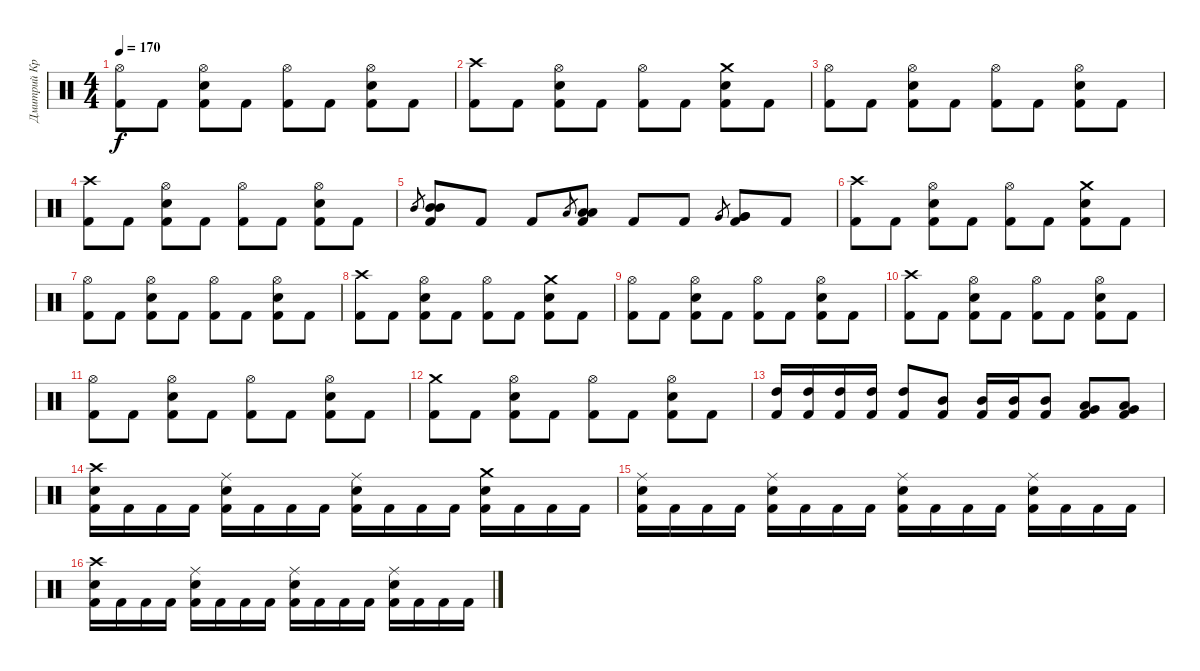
\track ("Дмитрий Кривенков" "Дмитрий Кр") {instrument percussion}
\staff {score}
\articulation defaults
\ts (4 4)
\tempo 170
\clef neutral
\ks c
("Hi-Hat (open)" "Kick (hit) 2").8{dy f} "Kick (hit) 2".8 ("Hi-Hat (open)" "Electric Snare (hit)" "Kick (hit) 2").8 "Kick (hit) 2".8 ("Hi-Hat (open)" "Kick (hit) 2").8 "Kick (hit) 2".8 ("Hi-Hat (open)" "Electric Snare (hit)" "Kick (hit) 2").8 "Kick (hit) 2".8 |
("Crash high (hit)" "Kick (hit) 2").8 "Kick (hit) 2".8 ("Hi-Hat (open)" "Electric Snare (hit)" "Kick (hit) 2").8 "Kick (hit) 2".8 ("Hi-Hat (open)" "Kick (hit) 2").8 "Kick (hit) 2".8 ("Crash medium (hit)" "Electric Snare (hit)" "Kick (hit) 2").8 "Kick (hit) 2".8 |
("Hi-Hat (open)" "Kick (hit) 2").8 "Kick (hit) 2".8 ("Hi-Hat (open)" "Electric Snare (hit)" "Kick (hit) 2").8 "Kick (hit) 2".8 ("Hi-Hat (open)" "Kick (hit) 2").8 "Kick (hit) 2".8 ("Hi-Hat (open)" "Electric Snare (hit)" "Kick (hit) 2").8 "Kick (hit) 2".8 |
("Crash high (hit)" "Kick (hit) 2").8 "Kick (hit) 2".8 ("Hi-Hat (open)" "Electric Snare (hit)" "Kick (hit) 2").8 "Kick (hit) 2".8 ("Hi-Hat (open)" "Kick (hit) 2").8 "Kick (hit) 2".8 ("Hi-Hat (open)" "Electric Snare (hit)" "Kick (hit) 2").8 "Kick (hit) 2".8 |
"Mid Tom (hit)".8{gr} ("Mid Tom (hit)" "Mid Tom (hit)" "Kick (hit) 2").8 "Kick (hit) 2".8 "Kick (hit) 2".8 "Low Tom (hit)".8{gr} ("Low Tom (hit)" "Low Tom (hit)" "Kick (hit) 2").8 "Kick (hit) 2".8 "Kick (hit) 2".8 "Very Low Tom (hit)".8{gr} ("Very Low Tom (hit)" "Very Low Tom (hit)" "Kick (hit) 2").8 "Kick (hit) 2".8 |
("Crash high (hit)" "Kick (hit) 2").8 "Kick (hit) 2".8 ("Hi-Hat (open)" "Electric Snare (hit)" "Kick (hit) 2").8 "Kick (hit) 2".8 ("Hi-Hat (open)" "Kick (hit) 2").8 "Kick (hit) 2".8 ("Crash medium (hit)" "Electric Snare (hit)" "Kick (hit) 2").8 "Kick (hit) 2".8 |
("Hi-Hat (open)" "Kick (hit) 2").8 "Kick (hit) 2".8 ("Hi-Hat (open)" "Electric Snare (hit)" "Kick (hit) 2").8 "Kick (hit) 2".8 ("Hi-Hat (open)" "Kick (hit) 2").8 "Kick (hit) 2".8 ("Hi-Hat (open)" "Electric Snare (hit)" "Kick (hit) 2").8 "Kick (hit) 2".8 |
("Crash high (hit)" "Kick (hit) 2").8 "Kick (hit) 2".8 ("Hi-Hat (open)" "Electric Snare (hit)" "Kick (hit) 2").8 "Kick (hit) 2".8 ("Hi-Hat (open)" "Kick (hit) 2").8 "Kick (hit) 2".8 ("Crash medium (hit)" "Electric Snare (hit)" "Kick (hit) 2").8 "Kick (hit) 2".8 |
("Hi-Hat (open)" "Kick (hit) 2").8 "Kick (hit) 2".8 ("Hi-Hat (open)" "Electric Snare (hit)" "Kick (hit) 2").8 "Kick (hit) 2".8 ("Hi-Hat (open)" "Kick (hit) 2").8 "Kick (hit) 2".8 ("Hi-Hat (open)" "Electric Snare (hit)" "Kick (hit) 2").8 "Kick (hit) 2".8 |
("Crash high (hit)" "Kick (hit) 2").8 "Kick (hit) 2".8 ("Hi-Hat (open)" "Electric Snare (hit)" "Kick (hit) 2").8 "Kick (hit) 2".8 ("Hi-Hat (open)" "Kick (hit) 2").8 "Kick (hit) 2".8 ("Hi-Hat (open)" "Electric Snare (hit)" "Kick (hit) 2").8 "Kick (hit) 2".8 |
("Hi-Hat (open)" "Kick (hit) 2").8 "Kick (hit) 2".8 ("Hi-Hat (open)" "Electric Snare (hit)" "Kick (hit) 2").8 "Kick (hit) 2".8 ("Hi-Hat (open)" "Kick (hit) 2").8 "Kick (hit) 2".8 ("Hi-Hat (open)" "Electric Snare (hit)" "Kick (hit) 2").8 "Kick (hit) 2".8 |
("Crash medium (hit)" "Kick (hit) 2").8 "Kick (hit) 2".8 ("Hi-Hat (open)" "Electric Snare (hit)" "Kick (hit) 2").8 "Kick (hit) 2".8 ("Hi-Hat (open)" "Kick (hit) 2").8 "Kick (hit) 2".8 ("Hi-Hat (open)" "Electric Snare (hit)" "Kick (hit) 2").8 "Kick (hit) 2".8 |
("High Tom (hit)" "Kick (hit) 2").16 ("High Tom (hit)" "Kick (hit) 2").16 ("High Tom (hit)" "Kick (hit) 2").16 ("High Tom (hit)" "Kick (hit) 2").16 ("High Tom (hit)" "Kick (hit) 2").8 ("Mid Tom (hit)" "Kick (hit) 2").8 ("Mid Tom (hit)" "Kick (hit) 2").16 ("Mid Tom (hit)" "Kick (hit) 2").16 ("Mid Tom (hit)" "Kick (hit) 2").8 ("Low Tom (hit)" "Very Low Tom (hit)" "Kick (hit) 2").8 ("Low Tom (hit)" "Very Low Tom (hit)" "Kick (hit) 2").8 |
("Crash high (hit)" "Electric Snare (hit)" "Kick (hit) 2").16 "Kick (hit) 2".16 "Kick (hit) 2".16 "Kick (hit) 2".16 ("Ride (middle)" "Electric Snare (hit)" "Kick (hit) 2").16 "Kick (hit) 2".16 "Kick (hit) 2".16 "Kick (hit) 2".16 ("Ride (middle)" "Electric Snare (hit)" "Kick (hit) 2").16 "Kick (hit) 2".16 "Kick (hit) 2".16 "Kick (hit) 2".16 ("Crash medium (hit)" "Electric Snare (hit)" "Kick (hit) 2").16 "Kick (hit) 2".16 "Kick (hit) 2".16 "Kick (hit) 2".16 |
("Ride (middle)" "Electric Snare (hit)" "Kick (hit) 2").16 "Kick (hit) 2".16 "Kick (hit) 2".16 "Kick (hit) 2".16 ("Ride (middle)" "Electric Snare (hit)" "Kick (hit) 2").16 "Kick (hit) 2".16 "Kick (hit) 2".16 "Kick (hit) 2".16 ("Ride (middle)" "Electric Snare (hit)" "Kick (hit) 2").16 "Kick (hit) 2".16 "Kick (hit) 2".16 "Kick (hit) 2".16 ("Ride (middle)" "Electric Snare (hit)" "Kick (hit) 2").16 "Kick (hit) 2".16 "Kick (hit) 2".16 "Kick (hit) 2".16 |
("Crash high (hit)" "Electric Snare (hit)" "Kick (hit) 2").16 "Kick (hit) 2".16 "Kick (hit) 2".16 "Kick (hit) 2".16 ("Ride (middle)" "Electric Snare (hit)" "Kick (hit) 2").16 "Kick (hit) 2".16 "Kick (hit) 2".16 "Kick (hit) 2".16 ("Ride (middle)" "Electric Snare (hit)" "Kick (hit) 2").16 "Kick (hit) 2".16 "Kick (hit) 2".16 "Kick (hit) 2".16 ("Ride (middle)" "Electric Snare (hit)" "Kick (hit) 2").16 "Kick (hit) 2".16 "Kick (hit) 2".16 "Kick (hit) 2".16
